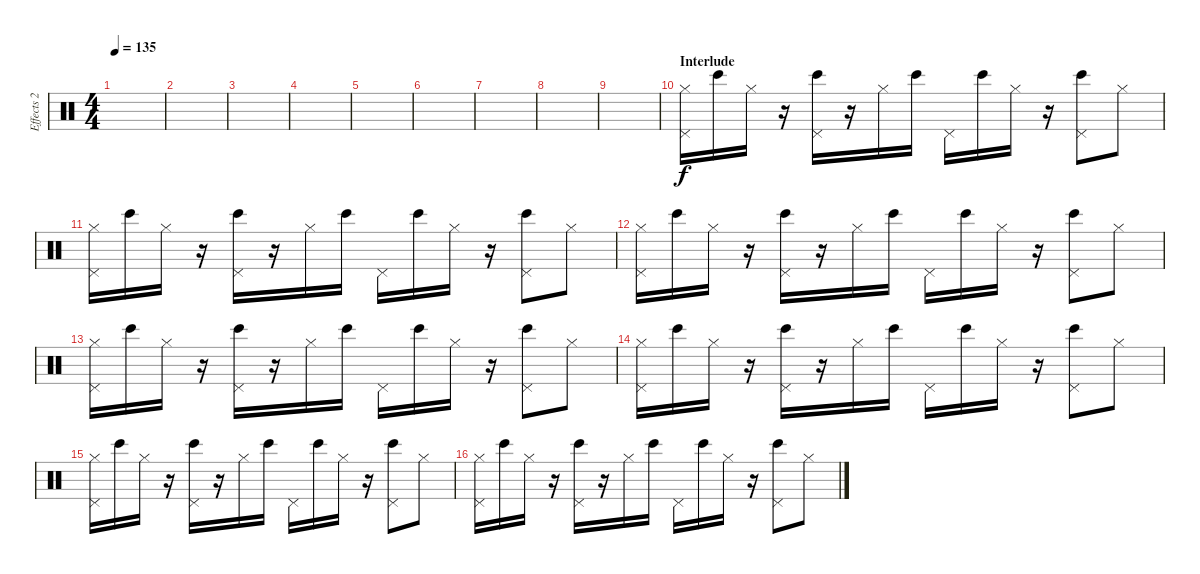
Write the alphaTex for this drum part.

\track ("Effects 2" "Effects 2") {instrument percussion}
\staff {score}
\articulation defaults
\ts (4 4)
\tempo 135
\clef neutral
\ks c
|
|
|
|
|
|
|
|
|
\section ("" "Interlude")
("Pedal Hi-Hat (hit)" "Hi-Hat (closed)").16{dy f volume 7} "Bongo High (hit)".16 "Hi-Hat (closed)".16 r.16 ("Pedal Hi-Hat (hit)" "Bongo High (hit)").16 r.16 "Hi-Hat (closed)".16 "Bongo High (hit)".16 "Pedal Hi-Hat (hit)".16 "Bongo High (hit)".16 "Hi-Hat (closed)".16 r.16 ("Pedal Hi-Hat (hit)" "Bongo High (hit)").8 "Hi-Hat (closed)".8 |
("Pedal Hi-Hat (hit)" "Hi-Hat (closed)").16 "Bongo High (hit)".16 "Hi-Hat (closed)".16 r.16 ("Pedal Hi-Hat (hit)" "Bongo High (hit)").16 r.16 "Hi-Hat (closed)".16 "Bongo High (hit)".16 "Pedal Hi-Hat (hit)".16 "Bongo High (hit)".16 "Hi-Hat (closed)".16 r.16 ("Pedal Hi-Hat (hit)" "Bongo High (hit)").8 "Hi-Hat (closed)".8 |
("Pedal Hi-Hat (hit)" "Hi-Hat (closed)").16{volume 16} "Bongo High (hit)".16 "Hi-Hat (closed)".16 r.16 ("Pedal Hi-Hat (hit)" "Bongo High (hit)").16 r.16 "Hi-Hat (closed)".16 "Bongo High (hit)".16 "Pedal Hi-Hat (hit)".16 "Bongo High (hit)".16 "Hi-Hat (closed)".16 r.16 ("Pedal Hi-Hat (hit)" "Bongo High (hit)").8 "Hi-Hat (closed)".8 |
("Pedal Hi-Hat (hit)" "Hi-Hat (closed)").16 "Bongo High (hit)".16 "Hi-Hat (closed)".16 r.16 ("Pedal Hi-Hat (hit)" "Bongo High (hit)").16 r.16 "Hi-Hat (closed)".16 "Bongo High (hit)".16 "Pedal Hi-Hat (hit)".16 "Bongo High (hit)".16 "Hi-Hat (closed)".16 r.16 ("Pedal Hi-Hat (hit)" "Bongo High (hit)").8 "Hi-Hat (closed)".8 |
("Pedal Hi-Hat (hit)" "Hi-Hat (closed)").16 "Bongo High (hit)".16 "Hi-Hat (closed)".16 r.16 ("Pedal Hi-Hat (hit)" "Bongo High (hit)").16 r.16 "Hi-Hat (closed)".16 "Bongo High (hit)".16 "Pedal Hi-Hat (hit)".16 "Bongo High (hit)".16 "Hi-Hat (closed)".16 r.16 ("Pedal Hi-Hat (hit)" "Bongo High (hit)").8 "Hi-Hat (closed)".8 |
("Pedal Hi-Hat (hit)" "Hi-Hat (closed)").16 "Bongo High (hit)".16 "Hi-Hat (closed)".16 r.16 ("Pedal Hi-Hat (hit)" "Bongo High (hit)").16 r.16 "Hi-Hat (closed)".16 "Bongo High (hit)".16 "Pedal Hi-Hat (hit)".16 "Bongo High (hit)".16 "Hi-Hat (closed)".16 r.16 ("Pedal Hi-Hat (hit)" "Bongo High (hit)").8 "Hi-Hat (closed)".8 |
("Pedal Hi-Hat (hit)" "Hi-Hat (closed)").16 "Bongo High (hit)".16 "Hi-Hat (closed)".16 r.16 ("Pedal Hi-Hat (hit)" "Bongo High (hit)").16 r.16 "Hi-Hat (closed)".16 "Bongo High (hit)".16 "Pedal Hi-Hat (hit)".16 "Bongo High (hit)".16 "Hi-Hat (closed)".16 r.16 ("Pedal Hi-Hat (hit)" "Bongo High (hit)").8 "Hi-Hat (closed)".8
